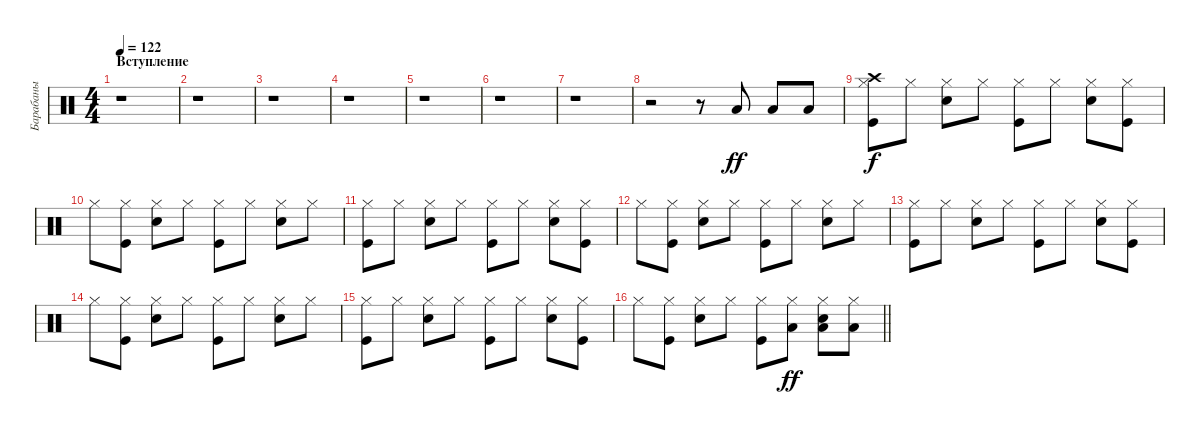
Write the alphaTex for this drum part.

\track ("Барабаны" "Барабаны") {instrument percussion}
\staff {score}
\articulation defaults
\ts (4 4)
\section ("" "Вступление")
\tempo 122
\clef neutral
\ks c
r.1{dy ff} |
r.1 |
r.1 |
r.1 |
r.1 |
r.1 |
r.1 |
r.2 r.8 "Low Floor Tom (hit)".8 "Low Floor Tom (hit)".8 "Low Floor Tom (hit)".8 |
("Kick (hit)" "Hi-Hat (closed)" "Crash high (hit)").8{dy f} "Hi-Hat (closed)".8 ("Snare (hit) 2" "Hi-Hat (closed)").8 "Hi-Hat (closed)".8 ("Kick (hit)" "Hi-Hat (closed)").8 "Hi-Hat (closed)".8 ("Snare (hit) 2" "Hi-Hat (closed)").8 ("Kick (hit)" "Hi-Hat (closed)").8 |
"Hi-Hat (closed)".8 ("Kick (hit)" "Hi-Hat (closed)").8 ("Snare (hit) 2" "Hi-Hat (closed)").8 "Hi-Hat (closed)".8 ("Kick (hit)" "Hi-Hat (closed)").8 "Hi-Hat (closed)".8 ("Snare (hit) 2" "Hi-Hat (closed)").8 "Hi-Hat (closed)".8 |
("Kick (hit)" "Hi-Hat (closed)").8 "Hi-Hat (closed)".8 ("Snare (hit) 2" "Hi-Hat (closed)").8 "Hi-Hat (closed)".8 ("Kick (hit)" "Hi-Hat (closed)").8 "Hi-Hat (closed)".8 ("Snare (hit) 2" "Hi-Hat (closed)").8 ("Kick (hit)" "Hi-Hat (closed)").8 |
"Hi-Hat (closed)".8 ("Kick (hit)" "Hi-Hat (closed)").8 ("Snare (hit) 2" "Hi-Hat (closed)").8 "Hi-Hat (closed)".8 ("Kick (hit)" "Hi-Hat (closed)").8 "Hi-Hat (closed)".8 ("Snare (hit) 2" "Hi-Hat (closed)").8 "Hi-Hat (closed)".8 |
("Kick (hit)" "Hi-Hat (closed)").8 "Hi-Hat (closed)".8 ("Snare (hit) 2" "Hi-Hat (closed)").8 "Hi-Hat (closed)".8 ("Kick (hit)" "Hi-Hat (closed)").8 "Hi-Hat (closed)".8 ("Snare (hit) 2" "Hi-Hat (closed)").8 ("Kick (hit)" "Hi-Hat (closed)").8 |
"Hi-Hat (closed)".8 ("Kick (hit)" "Hi-Hat (closed)").8 ("Snare (hit) 2" "Hi-Hat (closed)").8 "Hi-Hat (closed)".8 ("Kick (hit)" "Hi-Hat (closed)").8 "Hi-Hat (closed)".8 ("Snare (hit) 2" "Hi-Hat (closed)").8 "Hi-Hat (closed)".8 |
("Kick (hit)" "Hi-Hat (closed)").8 "Hi-Hat (closed)".8 ("Snare (hit) 2" "Hi-Hat (closed)").8 "Hi-Hat (closed)".8 ("Kick (hit)" "Hi-Hat (closed)").8 "Hi-Hat (closed)".8 ("Snare (hit) 2" "Hi-Hat (closed)").8 ("Kick (hit)" "Hi-Hat (closed)").8 |
\barLineRight lightlight "Hi-Hat (closed)".8
("Kick (hit)" "Hi-Hat (closed)").8 ("Snare (hit) 2" "Hi-Hat (closed)").8 "Hi-Hat (closed)".8 ("Kick (hit)" "Hi-Hat (closed)").8 ("Hi-Hat (closed)" "Low Floor Tom (hit)").8{dy ff} ("Snare (hit) 2" "Hi-Hat (closed)" "Low Floor Tom (hit)").8 ("Hi-Hat (closed)" "Low Floor Tom (hit)").8
